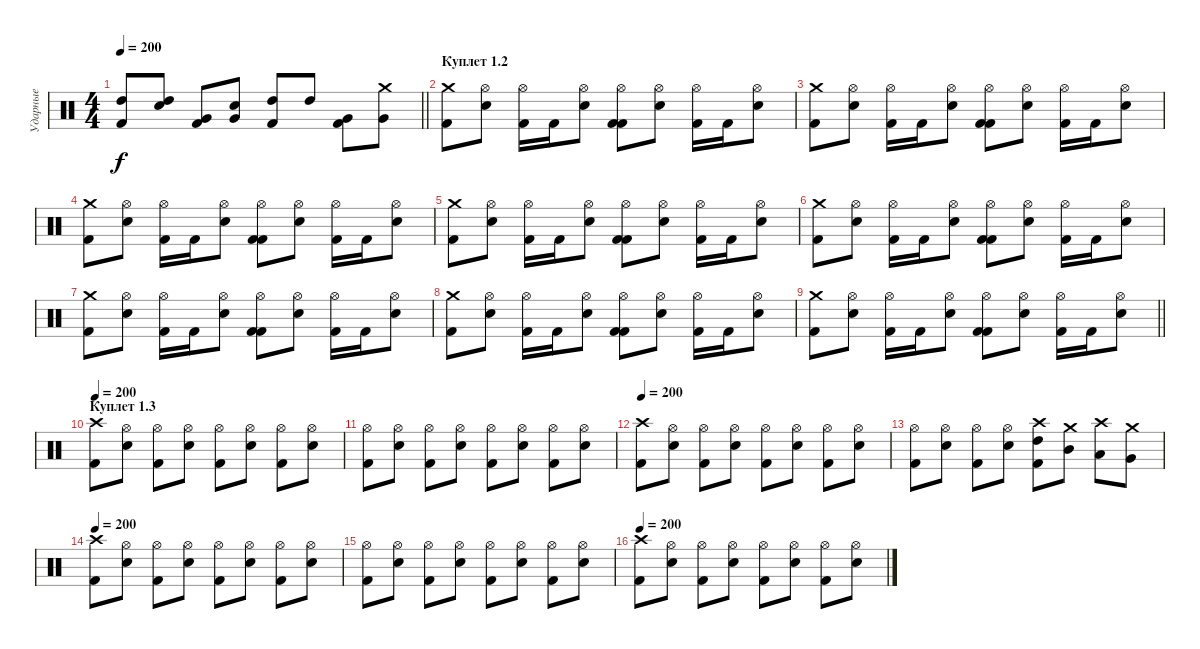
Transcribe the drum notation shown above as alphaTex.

\track ("Ударные" "Ударные") {instrument percussion}
\staff {score}
\articulation defaults
\ts (4 4)
\tempo 200
\clef neutral
\barLineRight lightlight
\ks c
("High Tom (hit)" "Kick (hit) 2").8{dy f} ("High Tom (hit)" "Snare (hit) 2").8 ("Very Low Tom (hit)" "Kick (hit) 2").8 ("Very Low Tom (hit)" "Snare (hit) 2").8 ("High Tom (hit)" "Kick (hit) 2").8 "High Tom (hit)".8 ("Very Low Tom (hit)" "Kick (hit) 2").8 ("Crash medium (hit)" "Very Low Tom (hit)").8 |
\section ("" "Куплет 1.2")
("Kick (hit) 2" "Crash medium (hit)").8 ("Hi-Hat (open)" "Electric Snare (hit)").8 ("Kick (hit) 2" "Hi-Hat (open)").16 "Kick (hit) 2".16 ("Hi-Hat (open)" "Electric Snare (hit)").8 ("Kick (hit) 2" "Kick (hit) 2" "Hi-Hat (open)").8 ("Hi-Hat (open)" "Electric Snare (hit)").8 ("Kick (hit) 2" "Hi-Hat (open)").16 "Kick (hit) 2".16 ("Hi-Hat (open)" "Electric Snare (hit)").8 |
("Kick (hit) 2" "Crash medium (hit)").8 ("Hi-Hat (open)" "Electric Snare (hit)").8 ("Kick (hit) 2" "Hi-Hat (open)").16 "Kick (hit) 2".16 ("Hi-Hat (open)" "Electric Snare (hit)").8 ("Kick (hit) 2" "Kick (hit) 2" "Hi-Hat (open)").8 ("Hi-Hat (open)" "Electric Snare (hit)").8 ("Kick (hit) 2" "Hi-Hat (open)").16 "Kick (hit) 2".16 ("Hi-Hat (open)" "Electric Snare (hit)").8 |
("Kick (hit) 2" "Crash medium (hit)").8 ("Hi-Hat (open)" "Electric Snare (hit)").8 ("Kick (hit) 2" "Hi-Hat (open)").16 "Kick (hit) 2".16 ("Hi-Hat (open)" "Electric Snare (hit)").8 ("Kick (hit) 2" "Kick (hit) 2" "Hi-Hat (open)").8 ("Hi-Hat (open)" "Electric Snare (hit)").8 ("Kick (hit) 2" "Hi-Hat (open)").16 "Kick (hit) 2".16 ("Hi-Hat (open)" "Electric Snare (hit)").8 |
("Kick (hit) 2" "Crash medium (hit)").8 ("Hi-Hat (open)" "Electric Snare (hit)").8 ("Kick (hit) 2" "Hi-Hat (open)").16 "Kick (hit) 2".16 ("Hi-Hat (open)" "Electric Snare (hit)").8 ("Kick (hit) 2" "Kick (hit) 2" "Hi-Hat (open)").8 ("Hi-Hat (open)" "Electric Snare (hit)").8 ("Kick (hit) 2" "Hi-Hat (open)").16 "Kick (hit) 2".16 ("Hi-Hat (open)" "Electric Snare (hit)").8 |
("Kick (hit) 2" "Crash medium (hit)").8 ("Hi-Hat (open)" "Electric Snare (hit)").8 ("Kick (hit) 2" "Hi-Hat (open)").16 "Kick (hit) 2".16 ("Hi-Hat (open)" "Electric Snare (hit)").8 ("Kick (hit) 2" "Kick (hit) 2" "Hi-Hat (open)").8 ("Hi-Hat (open)" "Electric Snare (hit)").8 ("Kick (hit) 2" "Hi-Hat (open)").16 "Kick (hit) 2".16 ("Hi-Hat (open)" "Electric Snare (hit)").8 |
("Kick (hit) 2" "Crash medium (hit)").8 ("Hi-Hat (open)" "Electric Snare (hit)").8 ("Kick (hit) 2" "Hi-Hat (open)").16 "Kick (hit) 2".16 ("Hi-Hat (open)" "Electric Snare (hit)").8 ("Kick (hit) 2" "Kick (hit) 2" "Hi-Hat (open)").8 ("Hi-Hat (open)" "Electric Snare (hit)").8 ("Kick (hit) 2" "Hi-Hat (open)").16 "Kick (hit) 2".16 ("Hi-Hat (open)" "Electric Snare (hit)").8 |
("Kick (hit) 2" "Crash medium (hit)").8 ("Hi-Hat (open)" "Electric Snare (hit)").8 ("Kick (hit) 2" "Hi-Hat (open)").16 "Kick (hit) 2".16 ("Hi-Hat (open)" "Electric Snare (hit)").8 ("Kick (hit) 2" "Kick (hit) 2" "Hi-Hat (open)").8 ("Hi-Hat (open)" "Electric Snare (hit)").8 ("Kick (hit) 2" "Hi-Hat (open)").16 "Kick (hit) 2".16 ("Hi-Hat (open)" "Electric Snare (hit)").8 |
\barLineRight lightlight
("Kick (hit) 2" "Crash medium (hit)").8 ("Hi-Hat (open)" "Electric Snare (hit)").8 ("Kick (hit) 2" "Hi-Hat (open)").16 "Kick (hit) 2".16 ("Hi-Hat (open)" "Electric Snare (hit)").8 ("Kick (hit) 2" "Kick (hit) 2" "Hi-Hat (open)").8 ("Hi-Hat (open)" "Electric Snare (hit)").8 ("Kick (hit) 2" "Hi-Hat (open)").16 "Kick (hit) 2".16 ("Hi-Hat (open)" "Electric Snare (hit)").8 |
\section ("" "Куплет 1.3")
\tempo 200
("Crash high (hit)" "Kick (hit) 2").8 ("Hi-Hat (open)" "Snare (hit) 2").8 ("Hi-Hat (open)" "Kick (hit) 2").8 ("Hi-Hat (open)" "Snare (hit) 2").8 ("Hi-Hat (open)" "Kick (hit) 2").8 ("Hi-Hat (open)" "Snare (hit) 2").8 ("Hi-Hat (open)" "Kick (hit) 2").8 ("Hi-Hat (open)" "Snare (hit) 2").8 |
("Hi-Hat (open)" "Kick (hit) 2").8 ("Hi-Hat (open)" "Snare (hit) 2").8 ("Hi-Hat (open)" "Kick (hit) 2").8 ("Hi-Hat (open)" "Snare (hit) 2").8 ("Hi-Hat (open)" "Kick (hit) 2").8 ("Hi-Hat (open)" "Snare (hit) 2").8 ("Hi-Hat (open)" "Kick (hit) 2").8 ("Hi-Hat (open)" "Snare (hit) 2").8 |
\tempo 200
("Crash high (hit)" "Kick (hit) 2").8 ("Hi-Hat (open)" "Snare (hit) 2").8 ("Hi-Hat (open)" "Kick (hit) 2").8 ("Hi-Hat (open)" "Snare (hit) 2").8 ("Hi-Hat (open)" "Kick (hit) 2").8 ("Hi-Hat (open)" "Snare (hit) 2").8 ("Hi-Hat (open)" "Kick (hit) 2").8 ("Hi-Hat (open)" "Snare (hit) 2").8 |
("Hi-Hat (open)" "Kick (hit) 2").8 ("Hi-Hat (open)" "Snare (hit) 2").8 ("Hi-Hat (open)" "Kick (hit) 2").8 ("Hi-Hat (open)" "Snare (hit) 2").8 ("Crash high (hit)" "High Tom (hit)" "Kick (hit) 2").8 ("Crash medium (hit)" "Mid Tom (hit)").8 ("Crash high (hit)" "Low Tom (hit)").8 ("Crash medium (hit)" "Very Low Tom (hit)").8 |
\tempo 200
("Crash high (hit)" "Kick (hit) 2").8 ("Hi-Hat (open)" "Snare (hit) 2").8 ("Hi-Hat (open)" "Kick (hit) 2").8 ("Hi-Hat (open)" "Snare (hit) 2").8 ("Hi-Hat (open)" "Kick (hit) 2").8 ("Hi-Hat (open)" "Snare (hit) 2").8 ("Hi-Hat (open)" "Kick (hit) 2").8 ("Hi-Hat (open)" "Snare (hit) 2").8 |
("Hi-Hat (open)" "Kick (hit) 2").8 ("Hi-Hat (open)" "Snare (hit) 2").8 ("Hi-Hat (open)" "Kick (hit) 2").8 ("Hi-Hat (open)" "Snare (hit) 2").8 ("Hi-Hat (open)" "Kick (hit) 2").8 ("Hi-Hat (open)" "Snare (hit) 2").8 ("Hi-Hat (open)" "Kick (hit) 2").8 ("Hi-Hat (open)" "Snare (hit) 2").8 |
\tempo 200
("Crash high (hit)" "Kick (hit) 2").8 ("Hi-Hat (open)" "Snare (hit) 2").8 ("Hi-Hat (open)" "Kick (hit) 2").8 ("Hi-Hat (open)" "Snare (hit) 2").8 ("Hi-Hat (open)" "Kick (hit) 2").8 ("Hi-Hat (open)" "Snare (hit) 2").8 ("Hi-Hat (open)" "Kick (hit) 2").8 ("Hi-Hat (open)" "Snare (hit) 2").8
